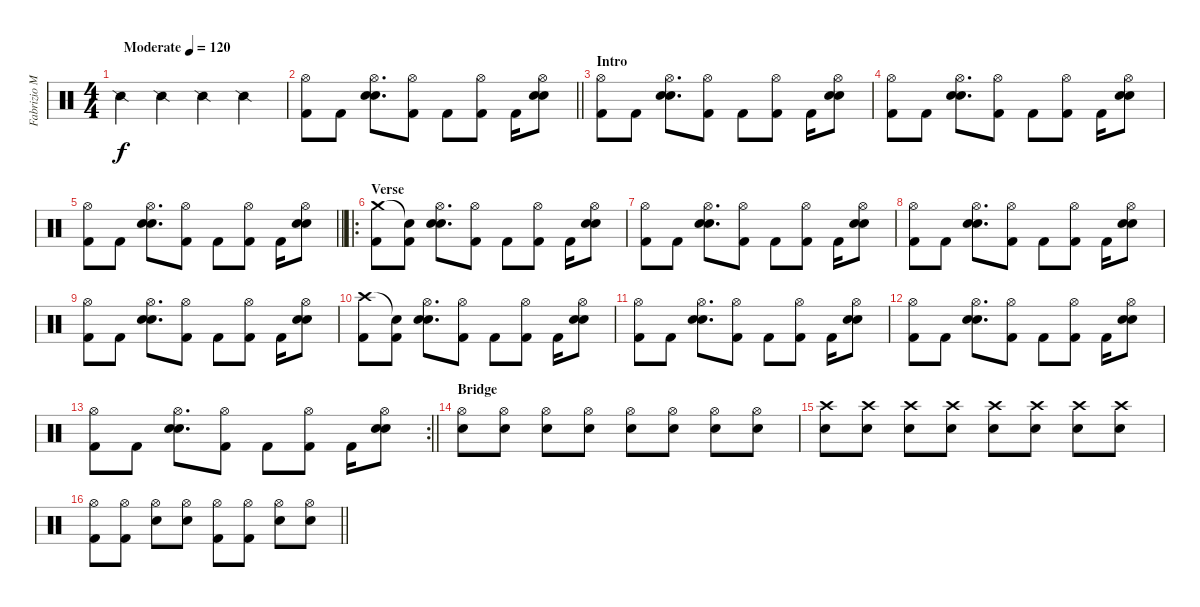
\track ("Fabrizio Moretti" "Fabrizio M") {instrument percussion}
\staff {score}
\articulation defaults
\ts (4 4)
\tempo (120 "Moderate")
\clef neutral
\ks c "Snare (side stick) 2".4{dy f} "Snare (side stick) 2".4 "Snare (side stick) 2".4 "Snare (side stick) 2".4
|
\barLineRight lightlight
("Hi-Hat (open)" "Kick (hit) 2").8 "Kick (hit) 2".8 ("Hand Clap (hit)" "Hi-Hat (open)" "Electric Snare (hit)").8{d} ("Hi-Hat (open)" "Kick (hit) 2").8 "Kick (hit) 2".8 ("Hi-Hat (open)" "Kick (hit) 2").8 "Kick (hit) 2".16 ("Hand Clap (hit)" "Hi-Hat (open)" "Electric Snare (hit)").8 |
\section ("" "Intro")
("Hi-Hat (open)" "Kick (hit) 2").8 "Kick (hit) 2".8 ("Hand Clap (hit)" "Hi-Hat (open)" "Electric Snare (hit)").8{d} ("Hi-Hat (open)" "Kick (hit) 2").8 "Kick (hit) 2".8 ("Hi-Hat (open)" "Kick (hit) 2").8 "Kick (hit) 2".16 ("Hand Clap (hit)" "Hi-Hat (open)" "Electric Snare (hit)").8 |
("Hi-Hat (open)" "Kick (hit) 2").8 "Kick (hit) 2".8 ("Hand Clap (hit)" "Hi-Hat (open)" "Electric Snare (hit)").8{d} ("Hi-Hat (open)" "Kick (hit) 2").8 "Kick (hit) 2".8 ("Hi-Hat (open)" "Kick (hit) 2").8 "Kick (hit) 2".16 ("Hand Clap (hit)" "Hi-Hat (open)" "Electric Snare (hit)").8 |
\barLineRight lightlight
("Hi-Hat (open)" "Kick (hit) 2").8 "Kick (hit) 2".8 ("Hand Clap (hit)" "Hi-Hat (open)" "Electric Snare (hit)").8{d} ("Hi-Hat (open)" "Kick (hit) 2").8 "Kick (hit) 2".8 ("Hi-Hat (open)" "Kick (hit) 2").8 "Kick (hit) 2".16 ("Hand Clap (hit)" "Hi-Hat (open)" "Electric Snare (hit)").8 |
\ro
\section ("" "Verse")
("Crash medium (hit)" "Kick (hit) 2").8 ("Snare (hit)"{t} "Kick (hit) 2").8 ("Hand Clap (hit)" "Hi-Hat (open)" "Electric Snare (hit)").8{d} ("Hi-Hat (open)" "Kick (hit) 2").8 "Kick (hit) 2".8 ("Hi-Hat (open)" "Kick (hit) 2").8 "Kick (hit) 2".16 ("Hand Clap (hit)" "Hi-Hat (open)" "Electric Snare (hit)").8 |
("Hi-Hat (open)" "Kick (hit) 2").8 "Kick (hit) 2".8 ("Hand Clap (hit)" "Hi-Hat (open)" "Electric Snare (hit)").8{d} ("Hi-Hat (open)" "Kick (hit) 2").8 "Kick (hit) 2".8 ("Hi-Hat (open)" "Kick (hit) 2").8 "Kick (hit) 2".16 ("Hand Clap (hit)" "Hi-Hat (open)" "Electric Snare (hit)").8 |
("Hi-Hat (open)" "Kick (hit) 2").8 "Kick (hit) 2".8 ("Hand Clap (hit)" "Hi-Hat (open)" "Electric Snare (hit)").8{d} ("Hi-Hat (open)" "Kick (hit) 2").8 "Kick (hit) 2".8 ("Hi-Hat (open)" "Kick (hit) 2").8 "Kick (hit) 2".16 ("Hand Clap (hit)" "Hi-Hat (open)" "Electric Snare (hit)").8 |
("Hi-Hat (open)" "Kick (hit) 2").8 "Kick (hit) 2".8 ("Hand Clap (hit)" "Hi-Hat (open)" "Electric Snare (hit)").8{d} ("Hi-Hat (open)" "Kick (hit) 2").8 "Kick (hit) 2".8 ("Hi-Hat (open)" "Kick (hit) 2").8 "Kick (hit) 2".16 ("Hand Clap (hit)" "Hi-Hat (open)" "Electric Snare (hit)").8 |
("Crash high (hit)" "Kick (hit) 2").8 ("Snare (hit)"{t} "Kick (hit) 2").8 ("Hand Clap (hit)" "Hi-Hat (open)" "Electric Snare (hit)").8{d} ("Hi-Hat (open)" "Kick (hit) 2").8 "Kick (hit) 2".8 ("Hi-Hat (open)" "Kick (hit) 2").8 "Kick (hit) 2".16 ("Hand Clap (hit)" "Hi-Hat (open)" "Electric Snare (hit)").8 |
("Hi-Hat (open)" "Kick (hit) 2").8 "Kick (hit) 2".8 ("Hand Clap (hit)" "Hi-Hat (open)" "Electric Snare (hit)").8{d} ("Hi-Hat (open)" "Kick (hit) 2").8 "Kick (hit) 2".8 ("Hi-Hat (open)" "Kick (hit) 2").8 "Kick (hit) 2".16 ("Hand Clap (hit)" "Hi-Hat (open)" "Electric Snare (hit)").8 |
("Hi-Hat (open)" "Kick (hit) 2").8 "Kick (hit) 2".8 ("Hand Clap (hit)" "Hi-Hat (open)" "Electric Snare (hit)").8{d} ("Hi-Hat (open)" "Kick (hit) 2").8 "Kick (hit) 2".8 ("Hi-Hat (open)" "Kick (hit) 2").8 "Kick (hit) 2".16 ("Hand Clap (hit)" "Hi-Hat (open)" "Electric Snare (hit)").8 |
\rc 2
\barLineRight lightlight
("Hi-Hat (open)" "Kick (hit) 2").8 "Kick (hit) 2".8 ("Hand Clap (hit)" "Hi-Hat (open)" "Electric Snare (hit)").8{d} ("Hi-Hat (open)" "Kick (hit) 2").8 "Kick (hit) 2".8 ("Hi-Hat (open)" "Kick (hit) 2").8 "Kick (hit) 2".16 ("Hand Clap (hit)" "Hi-Hat (open)" "Electric Snare (hit)").8 |
\section ("" "Bridge")
("Hi-Hat (open)" "Electric Snare (hit)").8 ("Hi-Hat (open)" "Electric Snare (hit)").8 ("Hi-Hat (open)" "Electric Snare (hit)").8 ("Hi-Hat (open)" "Electric Snare (hit)").8 ("Hi-Hat (open)" "Electric Snare (hit)").8 ("Hi-Hat (open)" "Electric Snare (hit)").8 ("Hi-Hat (open)" "Electric Snare (hit)").8 ("Hi-Hat (open)" "Electric Snare (hit)").8 |
("Crash high (hit)" "Electric Snare (hit)").8 ("Crash high (hit)" "Electric Snare (hit)").8 ("Crash high (hit)" "Electric Snare (hit)").8 ("Crash high (hit)" "Electric Snare (hit)").8 ("Crash high (hit)" "Electric Snare (hit)").8 ("Crash high (hit)" "Electric Snare (hit)").8 ("Crash high (hit)" "Electric Snare (hit)").8 ("Crash high (hit)" "Electric Snare (hit)").8 |
\barLineRight lightlight
("Hi-Hat (open)" "Kick (hit) 2").8 ("Hi-Hat (open)" "Kick (hit) 2").8 ("Hi-Hat (open)" "Electric Snare (hit)").8 ("Hi-Hat (open)" "Electric Snare (hit)").8 ("Hi-Hat (open)" "Kick (hit) 2").8 ("Hi-Hat (open)" "Kick (hit) 2").8 ("Hi-Hat (open)" "Electric Snare (hit)").8 ("Hi-Hat (open)" "Electric Snare (hit)").8
